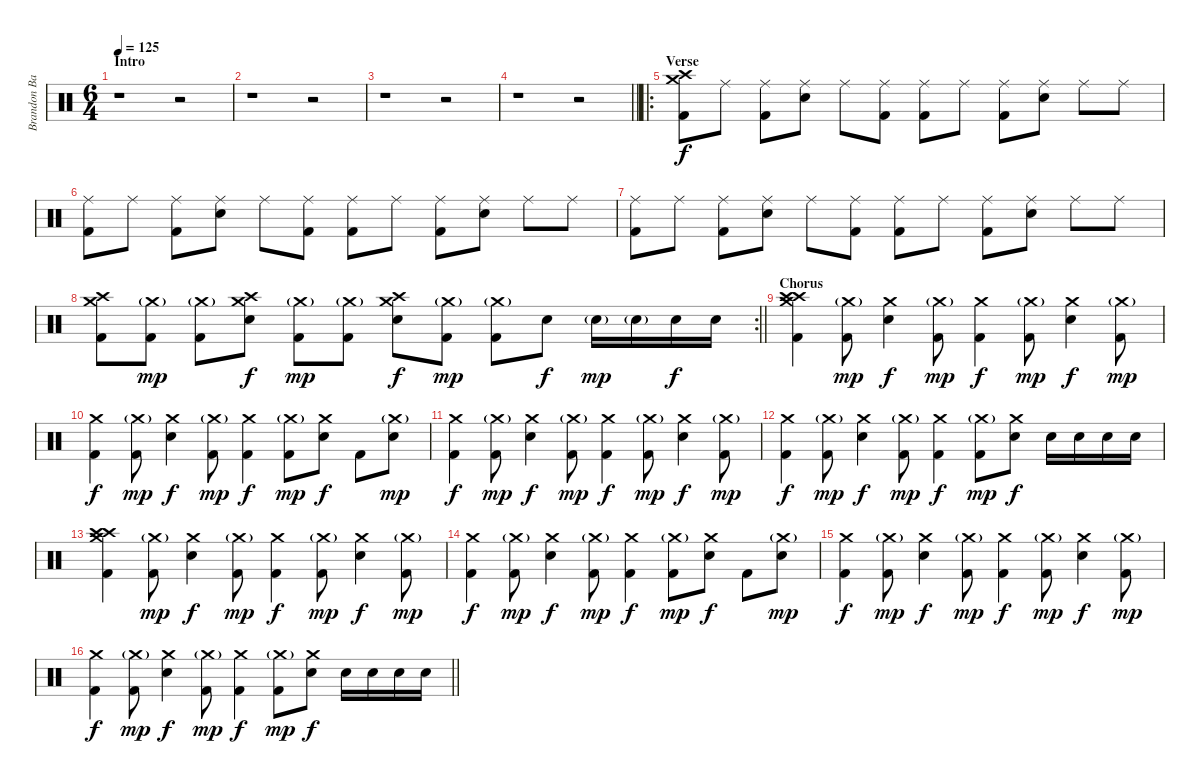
\track ("Brandon Barnes" "Brandon Ba") {instrument percussion}
\staff {score}
\articulation defaults
\ts (6 4)
\section ("" "Intro")
\tempo 125
\clef neutral
\ks c
r.1{dy f} r.2 |
r.1 r.2 |
r.1 r.2 |
\barLineRight lightlight
r.1 r.2 |
\ro
\section ("" "Verse")
("Crash high (hit)" "Crash medium (hit)" "Kick (hit) 2").8 "Ride (middle)".8 ("Ride (middle)" "Kick (hit) 2").8 ("Ride (middle)" "Electric Snare (hit)").8 "Ride (middle)".8 ("Ride (middle)" "Kick (hit) 2").8 ("Ride (middle)" "Kick (hit) 2").8 "Ride (middle)".8 ("Ride (middle)" "Kick (hit) 2").8 ("Ride (middle)" "Electric Snare (hit)").8 "Ride (middle)".8 "Ride (middle)".8 |
("Ride (middle)" "Kick (hit) 2").8 "Ride (middle)".8 ("Ride (middle)" "Kick (hit) 2").8 ("Ride (middle)" "Electric Snare (hit)").8 "Ride (middle)".8 ("Ride (middle)" "Kick (hit) 2").8 ("Ride (middle)" "Kick (hit) 2").8 "Ride (middle)".8 ("Ride (middle)" "Kick (hit) 2").8 ("Ride (middle)" "Electric Snare (hit)").8 "Ride (middle)".8 "Ride (middle)".8 |
("Ride (middle)" "Kick (hit) 2").8 "Ride (middle)".8 ("Ride (middle)" "Kick (hit) 2").8 ("Ride (middle)" "Electric Snare (hit)").8 "Ride (middle)".8 ("Ride (middle)" "Kick (hit) 2").8 ("Ride (middle)" "Kick (hit) 2").8 "Ride (middle)".8 ("Ride (middle)" "Kick (hit) 2").8 ("Ride (middle)" "Electric Snare (hit)").8 "Ride (middle)".8 "Ride (middle)".8 |
\rc 2
\barLineRight lightlight
("Crash high (hit)" "Crash medium (hit)" "Kick (hit) 2").8 ("Crash medium (hit)"{g} "Kick (hit) 2").8{dy mp} ("Crash medium (hit)"{g} "Kick (hit) 2").8 ("Crash medium (hit)" "Crash high (hit)" "Electric Snare (hit)").8{dy f} ("Crash medium (hit)"{g} "Kick (hit) 2").8{dy mp} ("Crash medium (hit)"{g} "Kick (hit) 2").8 ("Crash high (hit)" "Crash medium (hit)" "Electric Snare (hit)").8{dy f} ("Crash medium (hit)"{g} "Kick (hit) 2").8{dy mp} ("Crash medium (hit)"{g} "Kick (hit) 2").8 "Electric Snare (hit)".8{dy f} "Electric Snare (hit)"{g}.16{dy mp} "Electric Snare (hit)"{g}.16 "Electric Snare (hit)".16{dy f} "Electric Snare (hit)".16 |
\section ("" "Chorus")
("Crash high (hit)" "Crash high (hit)" "Crash medium (hit)" "Kick (hit) 2").4 ("Crash medium (hit)"{g} "Kick (hit) 2").8{dy mp} ("Crash medium (hit)" "Electric Snare (hit)").4{dy f} ("Crash medium (hit)"{g} "Kick (hit) 2").8{dy mp} ("Crash medium (hit)" "Kick (hit) 2").4{dy f} ("Crash medium (hit)"{g} "Kick (hit) 2").8{dy mp} ("Crash medium (hit)" "Electric Snare (hit)").4{dy f} ("Crash medium (hit)"{g} "Kick (hit) 2").8{dy mp} |
("Crash medium (hit)" "Kick (hit) 2").4{dy f} ("Crash medium (hit)"{g} "Kick (hit) 2").8{dy mp} ("Crash medium (hit)" "Electric Snare (hit)").4{dy f} ("Crash medium (hit)"{g} "Kick (hit) 2").8{dy mp} ("Crash medium (hit)" "Kick (hit) 2").4{dy f} ("Crash medium (hit)"{g} "Kick (hit) 2").8{dy mp} ("Crash medium (hit)" "Electric Snare (hit)").8{dy f} "Kick (hit) 2".8 ("Crash medium (hit)"{g} "Electric Snare (hit)").8{dy mp} |
("Crash medium (hit)" "Kick (hit) 2").4{dy f} ("Crash medium (hit)"{g} "Kick (hit) 2").8{dy mp} ("Crash medium (hit)" "Electric Snare (hit)").4{dy f} ("Crash medium (hit)"{g} "Kick (hit) 2").8{dy mp} ("Crash medium (hit)" "Kick (hit) 2").4{dy f} ("Crash medium (hit)"{g} "Kick (hit) 2").8{dy mp} ("Crash medium (hit)" "Electric Snare (hit)").4{dy f} ("Crash medium (hit)"{g} "Kick (hit) 2").8{dy mp} |
("Crash medium (hit)" "Kick (hit) 2").4{dy f} ("Crash medium (hit)"{g} "Kick (hit) 2").8{dy mp} ("Crash medium (hit)" "Electric Snare (hit)").4{dy f} ("Crash medium (hit)"{g} "Kick (hit) 2").8{dy mp} ("Crash medium (hit)" "Kick (hit) 2").4{dy f} ("Crash medium (hit)"{g} "Kick (hit) 2").8{dy mp} ("Crash medium (hit)" "Electric Snare (hit)").8{dy f} "Electric Snare (hit)".16 "Electric Snare (hit)".16 "Electric Snare (hit)".16 "Electric Snare (hit)".16 |
("Crash high (hit)" "Crash high (hit)" "Crash medium (hit)" "Kick (hit) 2").4 ("Crash medium (hit)"{g} "Kick (hit) 2").8{dy mp} ("Crash medium (hit)" "Electric Snare (hit)").4{dy f} ("Crash medium (hit)"{g} "Kick (hit) 2").8{dy mp} ("Crash medium (hit)" "Kick (hit) 2").4{dy f} ("Crash medium (hit)"{g} "Kick (hit) 2").8{dy mp} ("Crash medium (hit)" "Electric Snare (hit)").4{dy f} ("Crash medium (hit)"{g} "Kick (hit) 2").8{dy mp} |
("Crash medium (hit)" "Kick (hit) 2").4{dy f} ("Crash medium (hit)"{g} "Kick (hit) 2").8{dy mp} ("Crash medium (hit)" "Electric Snare (hit)").4{dy f} ("Crash medium (hit)"{g} "Kick (hit) 2").8{dy mp} ("Crash medium (hit)" "Kick (hit) 2").4{dy f} ("Crash medium (hit)"{g} "Kick (hit) 2").8{dy mp} ("Crash medium (hit)" "Electric Snare (hit)").8{dy f} "Kick (hit) 2".8 ("Crash medium (hit)"{g} "Electric Snare (hit)").8{dy mp} |
("Crash medium (hit)" "Kick (hit) 2").4{dy f} ("Crash medium (hit)"{g} "Kick (hit) 2").8{dy mp} ("Crash medium (hit)" "Electric Snare (hit)").4{dy f} ("Crash medium (hit)"{g} "Kick (hit) 2").8{dy mp} ("Crash medium (hit)" "Kick (hit) 2").4{dy f} ("Crash medium (hit)"{g} "Kick (hit) 2").8{dy mp} ("Crash medium (hit)" "Electric Snare (hit)").4{dy f} ("Crash medium (hit)"{g} "Kick (hit) 2").8{dy mp} |
\barLineRight lightlight
("Crash medium (hit)" "Kick (hit) 2").4{dy f} ("Crash medium (hit)"{g} "Kick (hit) 2").8{dy mp} ("Crash medium (hit)" "Electric Snare (hit)").4{dy f} ("Crash medium (hit)"{g} "Kick (hit) 2").8{dy mp} ("Crash medium (hit)" "Kick (hit) 2").4{dy f} ("Crash medium (hit)"{g} "Kick (hit) 2").8{dy mp} ("Crash medium (hit)" "Electric Snare (hit)").8{dy f} "Electric Snare (hit)".16 "Electric Snare (hit)".16 "Electric Snare (hit)".16 "Electric Snare (hit)".16
